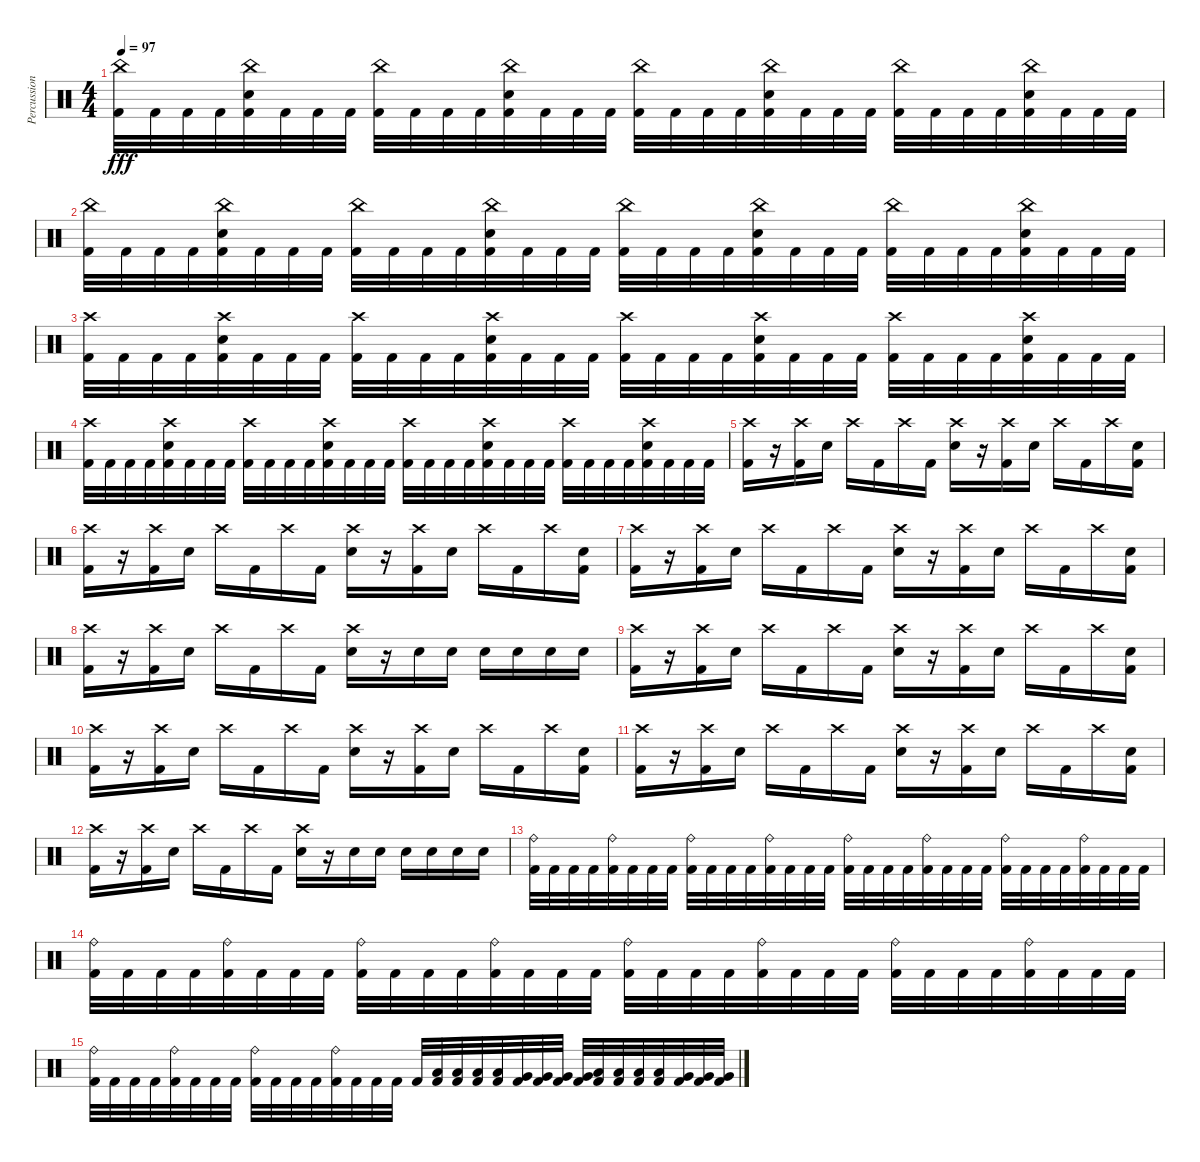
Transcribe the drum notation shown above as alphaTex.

\track ("Percussion" "Percussion") {instrument percussion}
\staff {score}
\articulation defaults
\ts (4 4)
\tempo 97
\clef neutral
\ks c
("China (hit)" "Kick (hit) 2").32{dy fff} "Kick (hit) 2".32 "Kick (hit) 2".32 "Kick (hit) 2".32 ("China (hit)" "Snare (hit) 2" "Kick (hit) 2").32 "Kick (hit) 2".32 "Kick (hit) 2".32 "Kick (hit) 2".32 ("China (hit)" "Kick (hit) 2").32 "Kick (hit) 2".32 "Kick (hit) 2".32 "Kick (hit) 2".32 ("China (hit)" "Snare (hit) 2" "Kick (hit) 2").32 "Kick (hit) 2".32 "Kick (hit) 2".32 "Kick (hit) 2".32 ("China (hit)" "Kick (hit) 2").32 "Kick (hit) 2".32 "Kick (hit) 2".32 "Kick (hit) 2".32 ("China (hit)" "Snare (hit) 2" "Kick (hit) 2").32 "Kick (hit) 2".32 "Kick (hit) 2".32 "Kick (hit) 2".32 ("China (hit)" "Kick (hit) 2").32 "Kick (hit) 2".32 "Kick (hit) 2".32 "Kick (hit) 2".32 ("China (hit)" "Snare (hit) 2" "Kick (hit) 2").32 "Kick (hit) 2".32 "Kick (hit) 2".32 "Kick (hit) 2".32 |
("China (hit)" "Kick (hit) 2").32 "Kick (hit) 2".32 "Kick (hit) 2".32 "Kick (hit) 2".32 ("China (hit)" "Snare (hit) 2" "Kick (hit) 2").32 "Kick (hit) 2".32 "Kick (hit) 2".32 "Kick (hit) 2".32 ("China (hit)" "Kick (hit) 2").32 "Kick (hit) 2".32 "Kick (hit) 2".32 "Kick (hit) 2".32 ("China (hit)" "Snare (hit) 2" "Kick (hit) 2").32 "Kick (hit) 2".32 "Kick (hit) 2".32 "Kick (hit) 2".32 ("China (hit)" "Kick (hit) 2").32 "Kick (hit) 2".32 "Kick (hit) 2".32 "Kick (hit) 2".32 ("China (hit)" "Snare (hit) 2" "Kick (hit) 2").32 "Kick (hit) 2".32 "Kick (hit) 2".32 "Kick (hit) 2".32 ("China (hit)" "Kick (hit) 2").32 "Kick (hit) 2".32 "Kick (hit) 2".32 "Kick (hit) 2".32 ("China (hit)" "Snare (hit) 2" "Kick (hit) 2").32 "Kick (hit) 2".32 "Kick (hit) 2".32 "Kick (hit) 2".32 |
("Crash high (hit)" "Kick (hit) 2").32 "Kick (hit) 2".32 "Kick (hit) 2".32 "Kick (hit) 2".32 ("Crash high (hit)" "Snare (hit) 2" "Kick (hit) 2").32 "Kick (hit) 2".32 "Kick (hit) 2".32 "Kick (hit) 2".32 ("Crash high (hit)" "Kick (hit) 2").32 "Kick (hit) 2".32 "Kick (hit) 2".32 "Kick (hit) 2".32 ("Crash high (hit)" "Snare (hit) 2" "Kick (hit) 2").32 "Kick (hit) 2".32 "Kick (hit) 2".32 "Kick (hit) 2".32 ("Crash high (hit)" "Kick (hit) 2").32 "Kick (hit) 2".32 "Kick (hit) 2".32 "Kick (hit) 2".32 ("Crash high (hit)" "Snare (hit) 2" "Kick (hit) 2").32 "Kick (hit) 2".32 "Kick (hit) 2".32 "Kick (hit) 2".32 ("Crash high (hit)" "Kick (hit) 2").32 "Kick (hit) 2".32 "Kick (hit) 2".32 "Kick (hit) 2".32 ("Crash high (hit)" "Snare (hit) 2" "Kick (hit) 2").32 "Kick (hit) 2".32 "Kick (hit) 2".32 "Kick (hit) 2".32 |
("Crash high (hit)" "Kick (hit) 2").32 "Kick (hit) 2".32 "Kick (hit) 2".32 "Kick (hit) 2".32 ("Crash high (hit)" "Snare (hit) 2" "Kick (hit) 2").32 "Kick (hit) 2".32 "Kick (hit) 2".32 "Kick (hit) 2".32 ("Crash high (hit)" "Kick (hit) 2").32 "Kick (hit) 2".32 "Kick (hit) 2".32 "Kick (hit) 2".32 ("Crash high (hit)" "Snare (hit) 2" "Kick (hit) 2").32 "Kick (hit) 2".32 "Kick (hit) 2".32 "Kick (hit) 2".32 ("Crash high (hit)" "Kick (hit) 2").32 "Kick (hit) 2".32 "Kick (hit) 2".32 "Kick (hit) 2".32 ("Crash high (hit)" "Snare (hit) 2" "Kick (hit) 2").32 "Kick (hit) 2".32 "Kick (hit) 2".32 "Kick (hit) 2".32 ("Crash high (hit)" "Kick (hit) 2").32 "Kick (hit) 2".32 "Kick (hit) 2".32 "Kick (hit) 2".32 ("Crash high (hit)" "Snare (hit) 2" "Kick (hit) 2").32 "Kick (hit) 2".32 "Kick (hit) 2".32 "Kick (hit) 2".32 |
("Crash high (hit)" "Kick (hit) 2").16 r.16 ("Crash high (hit)" "Kick (hit) 2").16 "Snare (hit) 2".16 "Crash high (hit)".16 "Kick (hit) 2".16 "Crash high (hit)".16 "Kick (hit) 2".16 ("Crash high (hit)" "Snare (hit) 2").16 r.16 ("Crash high (hit)" "Kick (hit) 2").16 "Snare (hit) 2".16 "Crash high (hit)".16 "Kick (hit) 2".16 "Crash high (hit)".16 ("Snare (hit) 2" "Kick (hit) 2").16 |
("Crash high (hit)" "Kick (hit) 2").16 r.16 ("Crash high (hit)" "Kick (hit) 2").16 "Snare (hit) 2".16 "Crash high (hit)".16 "Kick (hit) 2".16 "Crash high (hit)".16 "Kick (hit) 2".16 ("Crash high (hit)" "Snare (hit) 2").16 r.16 ("Crash high (hit)" "Kick (hit) 2").16 "Snare (hit) 2".16 "Crash high (hit)".16 "Kick (hit) 2".16 "Crash high (hit)".16 ("Snare (hit) 2" "Kick (hit) 2").16 |
("Crash high (hit)" "Kick (hit) 2").16 r.16 ("Crash high (hit)" "Kick (hit) 2").16 "Snare (hit) 2".16 "Crash high (hit)".16 "Kick (hit) 2".16 "Crash high (hit)".16 "Kick (hit) 2".16 ("Crash high (hit)" "Snare (hit) 2").16 r.16 ("Crash high (hit)" "Kick (hit) 2").16 "Snare (hit) 2".16 "Crash high (hit)".16 "Kick (hit) 2".16 "Crash high (hit)".16 ("Snare (hit) 2" "Kick (hit) 2").16 |
("Crash high (hit)" "Kick (hit) 2").16 r.16 ("Crash high (hit)" "Kick (hit) 2").16 "Snare (hit) 2".16 "Crash high (hit)".16 "Kick (hit) 2".16 "Crash high (hit)".16 "Kick (hit) 2".16 ("Crash high (hit)" "Snare (hit) 2").16 r.16 "Snare (hit) 2".16 "Snare (hit) 2".16 "Snare (hit) 2".16 "Snare (hit) 2".16 "Snare (hit) 2".16 "Snare (hit) 2".16 |
("Crash high (hit)" "Kick (hit) 2").16 r.16 ("Crash high (hit)" "Kick (hit) 2").16 "Snare (hit) 2".16 "Crash high (hit)".16 "Kick (hit) 2".16 "Crash high (hit)".16 "Kick (hit) 2".16 ("Crash high (hit)" "Snare (hit) 2").16 r.16 ("Crash high (hit)" "Kick (hit) 2").16 "Snare (hit) 2".16 "Crash high (hit)".16 "Kick (hit) 2".16 "Crash high (hit)".16 ("Snare (hit) 2" "Kick (hit) 2").16 |
("Crash high (hit)" "Kick (hit) 2").16 r.16 ("Crash high (hit)" "Kick (hit) 2").16 "Snare (hit) 2".16 "Crash high (hit)".16 "Kick (hit) 2".16 "Crash high (hit)".16 "Kick (hit) 2".16 ("Crash high (hit)" "Snare (hit) 2").16 r.16 ("Crash high (hit)" "Kick (hit) 2").16 "Snare (hit) 2".16 "Crash high (hit)".16 "Kick (hit) 2".16 "Crash high (hit)".16 ("Snare (hit) 2" "Kick (hit) 2").16 |
("Crash high (hit)" "Kick (hit) 2").16 r.16 ("Crash high (hit)" "Kick (hit) 2").16 "Snare (hit) 2".16 "Crash high (hit)".16 "Kick (hit) 2".16 "Crash high (hit)".16 "Kick (hit) 2".16 ("Crash high (hit)" "Snare (hit) 2").16 r.16 ("Crash high (hit)" "Kick (hit) 2").16 "Snare (hit) 2".16 "Crash high (hit)".16 "Kick (hit) 2".16 "Crash high (hit)".16 ("Snare (hit) 2" "Kick (hit) 2").16 |
("Crash high (hit)" "Kick (hit) 2").16 r.16 ("Crash high (hit)" "Kick (hit) 2").16 "Snare (hit) 2".16 "Crash high (hit)".16 "Kick (hit) 2".16 "Crash high (hit)".16 "Kick (hit) 2".16 ("Crash high (hit)" "Snare (hit) 2").16 r.16 "Snare (hit) 2".16 "Snare (hit) 2".16 "Snare (hit) 2".16 "Snare (hit) 2".16 "Snare (hit) 2".16 "Snare (hit) 2".16 |
("Ride (bell)" "Kick (hit) 2").32 "Kick (hit) 2".32 "Kick (hit) 2".32 "Kick (hit) 2".32 ("Ride (bell)" "Kick (hit) 2").32 "Kick (hit) 2".32 "Kick (hit) 2".32 "Kick (hit) 2".32 ("Ride (bell)" "Kick (hit) 2").32 "Kick (hit) 2".32 "Kick (hit) 2".32 "Kick (hit) 2".32 ("Ride (bell)" "Kick (hit) 2").32 "Kick (hit) 2".32 "Kick (hit) 2".32 "Kick (hit) 2".32 ("Ride (bell)" "Kick (hit) 2").32 "Kick (hit) 2".32 "Kick (hit) 2".32 "Kick (hit) 2".32 ("Ride (bell)" "Kick (hit) 2").32 "Kick (hit) 2".32 "Kick (hit) 2".32 "Kick (hit) 2".32 ("Ride (bell)" "Kick (hit) 2").32 "Kick (hit) 2".32 "Kick (hit) 2".32 "Kick (hit) 2".32 ("Ride (bell)" "Kick (hit) 2").32 "Kick (hit) 2".32 "Kick (hit) 2".32 "Kick (hit) 2".32 |
("Ride (bell)" "Kick (hit) 2").32 "Kick (hit) 2".32 "Kick (hit) 2".32 "Kick (hit) 2".32 ("Ride (bell)" "Kick (hit) 2").32 "Kick (hit) 2".32 "Kick (hit) 2".32 "Kick (hit) 2".32 ("Ride (bell)" "Kick (hit) 2").32 "Kick (hit) 2".32 "Kick (hit) 2".32 "Kick (hit) 2".32 ("Ride (bell)" "Kick (hit) 2").32 "Kick (hit) 2".32 "Kick (hit) 2".32 "Kick (hit) 2".32 ("Ride (bell)" "Kick (hit) 2").32 "Kick (hit) 2".32 "Kick (hit) 2".32 "Kick (hit) 2".32 ("Ride (bell)" "Kick (hit) 2").32 "Kick (hit) 2".32 "Kick (hit) 2".32 "Kick (hit) 2".32 ("Ride (bell)" "Kick (hit) 2").32 "Kick (hit) 2".32 "Kick (hit) 2".32 "Kick (hit) 2".32 ("Ride (bell)" "Kick (hit) 2").32 "Kick (hit) 2".32 "Kick (hit) 2".32 "Kick (hit) 2".32 |
("Ride (bell)" "Kick (hit) 2").32 "Kick (hit) 2".32 "Kick (hit) 2".32 "Kick (hit) 2".32 ("Ride (bell)" "Kick (hit) 2").32 "Kick (hit) 2".32 "Kick (hit) 2".32 "Kick (hit) 2".32 ("Ride (bell)" "Kick (hit) 2").32 "Kick (hit) 2".32 "Kick (hit) 2".32 "Kick (hit) 2".32 ("Ride (bell)" "Kick (hit) 2").32 "Kick (hit) 2".32 "Kick (hit) 2".32 "Kick (hit) 2".32 "Kick (hit) 2".32 ("Low Floor Tom (hit)" "Kick (hit) 2").32 ("Low Floor Tom (hit)" "Kick (hit) 2").32 ("Low Floor Tom (hit)" "Kick (hit) 2").32 ("Low Floor Tom (hit)" "Kick (hit) 2").32 ("Very Low Tom (hit)" "Kick (hit) 2").32 ("Very Low Tom (hit)" "Kick (hit) 2").32 ("Very Low Tom (hit)" "Kick (hit) 2").32 ("Very Low Tom (hit)" "Kick (hit) 2").32 ("Low Tom (hit)" "Kick (hit) 2").32 ("Low Tom (hit)" "Kick (hit) 2").32 ("Low Tom (hit)" "Kick (hit) 2").32 ("Low Tom (hit)" "Kick (hit) 2").32 ("Very Low Tom (hit)" "Kick (hit) 2").32 ("Very Low Tom (hit)" "Kick (hit) 2").32 ("Very Low Tom (hit)" "Kick (hit) 2").32
